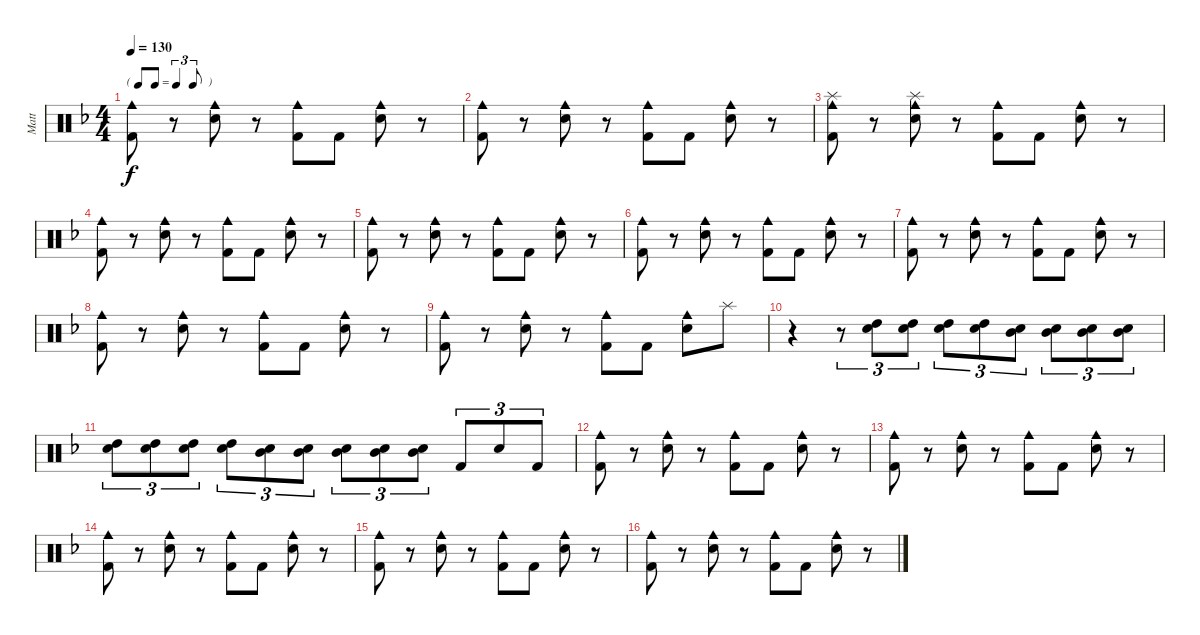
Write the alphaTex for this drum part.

\track ("Matt" "Matt") {instrument percussion}
\staff {score}
\articulation defaults
\ts (4 4)
\tf triplet8th
\tempo 130
\clef neutral
\ks f
("Cowbell medium (hit)" "Kick (hit) 2").8{dy f} r.8 ("Cowbell medium (hit)" "Snare (hit) 2").8 r.8 ("Cowbell medium (hit)" "Kick (hit) 2").8 "Kick (hit) 2".8 ("Cowbell medium (hit)" "Snare (hit) 2").8 r.8 |
("Cowbell medium (hit)" "Kick (hit) 2").8 r.8 ("Cowbell medium (hit)" "Snare (hit) 2").8 r.8 ("Cowbell medium (hit)" "Kick (hit) 2").8 "Kick (hit) 2".8 ("Cowbell medium (hit)" "Snare (hit) 2").8 r.8 |
("Cowbell medium (hit)" "Kick (hit) 2" "Splash (hit)").8 r.8 ("Cowbell medium (hit)" "Snare (hit) 2" "Splash (hit)").8 r.8 ("Cowbell medium (hit)" "Kick (hit) 2").8 "Kick (hit) 2".8 ("Cowbell medium (hit)" "Snare (hit) 2").8 r.8 |
("Cowbell medium (hit)" "Kick (hit) 2").8 r.8 ("Cowbell medium (hit)" "Snare (hit) 2").8 r.8 ("Cowbell medium (hit)" "Kick (hit) 2").8 "Kick (hit) 2".8 ("Cowbell medium (hit)" "Snare (hit) 2").8 r.8 |
("Cowbell medium (hit)" "Kick (hit) 2").8 r.8 ("Cowbell medium (hit)" "Snare (hit) 2").8 r.8 ("Cowbell medium (hit)" "Kick (hit) 2").8 "Kick (hit) 2".8 ("Cowbell medium (hit)" "Snare (hit) 2").8 r.8 |
("Cowbell medium (hit)" "Kick (hit) 2").8 r.8 ("Cowbell medium (hit)" "Snare (hit) 2").8 r.8 ("Cowbell medium (hit)" "Kick (hit) 2").8 "Kick (hit) 2".8 ("Cowbell medium (hit)" "Snare (hit) 2").8 r.8 |
("Cowbell medium (hit)" "Kick (hit) 2").8 r.8 ("Cowbell medium (hit)" "Snare (hit) 2").8 r.8 ("Cowbell medium (hit)" "Kick (hit) 2").8 "Kick (hit) 2".8 ("Cowbell medium (hit)" "Snare (hit) 2").8 r.8 |
("Cowbell medium (hit)" "Kick (hit) 2").8 r.8 ("Cowbell medium (hit)" "Snare (hit) 2").8 r.8 ("Cowbell medium (hit)" "Kick (hit) 2").8 "Kick (hit) 2".8 ("Cowbell medium (hit)" "Snare (hit) 2").8 r.8 |
("Cowbell medium (hit)" "Kick (hit) 2").8 r.8 ("Cowbell medium (hit)" "Snare (hit) 2").8 r.8 ("Cowbell medium (hit)" "Kick (hit) 2").8 "Kick (hit) 2".8 ("Cowbell medium (hit)" "Snare (hit) 2").8 "Splash (hit)".8 |
r.4 r.8{tu (3 2)} ("Snare (hit) 2" "High Tom (hit)").8{tu (3 2)} ("Snare (hit) 2" "High Tom (hit)").8{tu (3 2)} ("Snare (hit) 2" "High Tom (hit)").8{tu (3 2)} ("Snare (hit) 2" "High Tom (hit)").8{tu (3 2)} ("Snare (hit) 2" "Mid Tom (hit)").8{tu (3 2)} ("Snare (hit) 2" "Mid Tom (hit)").8{tu (3 2)} ("Snare (hit) 2" "Mid Tom (hit)").8{tu (3 2)} ("Snare (hit) 2" "Mid Tom (hit)").8{tu (3 2)} |
("Snare (hit) 2" "High Tom (hit)").8{tu (3 2)} ("Snare (hit) 2" "High Tom (hit)").8{tu (3 2)} ("Snare (hit) 2" "High Tom (hit)").8{tu (3 2)} ("Snare (hit) 2" "High Tom (hit)").8{tu (3 2)} ("Snare (hit) 2" "Mid Tom (hit)").8{tu (3 2)} ("Snare (hit) 2" "Mid Tom (hit)").8{tu (3 2)} ("Snare (hit) 2" "Mid Tom (hit)").8{tu (3 2)} ("Snare (hit) 2" "Mid Tom (hit)").8{tu (3 2)} ("Snare (hit) 2" "Mid Tom (hit)").8{tu (3 2)} "Kick (hit) 2".8{tu (3 2)} "Snare (hit) 2".8{tu (3 2)} "Kick (hit) 2".8{tu (3 2)} |
("Cowbell medium (hit)" "Kick (hit) 2").8 r.8 ("Cowbell medium (hit)" "Snare (hit) 2").8 r.8 ("Cowbell medium (hit)" "Kick (hit) 2").8 "Kick (hit) 2".8 ("Cowbell medium (hit)" "Snare (hit) 2").8 r.8 |
("Cowbell medium (hit)" "Kick (hit) 2").8 r.8 ("Cowbell medium (hit)" "Snare (hit) 2").8 r.8 ("Cowbell medium (hit)" "Kick (hit) 2").8 "Kick (hit) 2".8 ("Cowbell medium (hit)" "Snare (hit) 2").8 r.8 |
("Cowbell medium (hit)" "Kick (hit) 2").8 r.8 ("Cowbell medium (hit)" "Snare (hit) 2").8 r.8 ("Cowbell medium (hit)" "Kick (hit) 2").8 "Kick (hit) 2".8 ("Cowbell medium (hit)" "Snare (hit) 2").8 r.8 |
("Cowbell medium (hit)" "Kick (hit) 2").8 r.8 ("Cowbell medium (hit)" "Snare (hit) 2").8 r.8 ("Cowbell medium (hit)" "Kick (hit) 2").8 "Kick (hit) 2".8 ("Cowbell medium (hit)" "Snare (hit) 2").8 r.8 |
("Cowbell medium (hit)" "Kick (hit) 2").8 r.8 ("Cowbell medium (hit)" "Snare (hit) 2").8 r.8 ("Cowbell medium (hit)" "Kick (hit) 2").8 "Kick (hit) 2".8 ("Cowbell medium (hit)" "Snare (hit) 2").8 r.8
